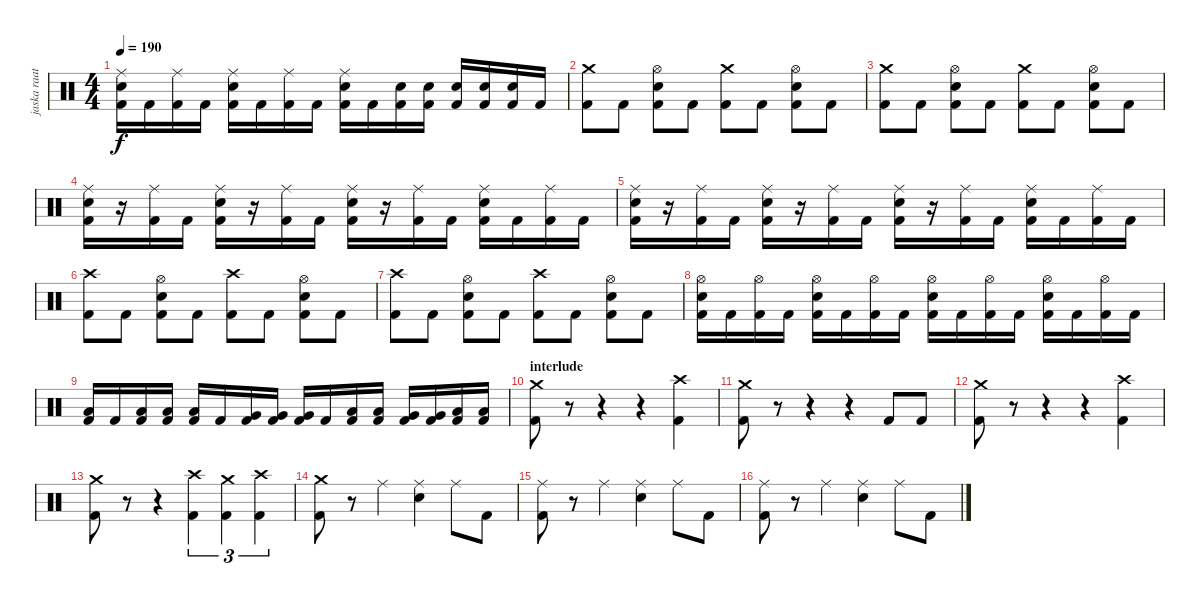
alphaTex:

\track ("jaska raatikainen" "jaska raat") {instrument percussion}
\staff {score}
\articulation defaults
\ts (4 4)
\tempo 190
\clef neutral
\ks c
("Ride (middle)" "Snare (hit) 2" "Kick (hit) 2").16{dy f} "Kick (hit) 2".16 ("Ride (middle)" "Kick (hit) 2").16 "Kick (hit) 2".16 ("Ride (middle)" "Snare (hit) 2" "Kick (hit) 2").16 "Kick (hit) 2".16 ("Ride (middle)" "Kick (hit) 2").16 "Kick (hit) 2".16 ("Ride (middle)" "Snare (hit) 2" "Kick (hit) 2").16 "Kick (hit) 2".16 ("Snare (hit) 2" "Kick (hit) 2").16 ("Snare (hit) 2" "Kick (hit) 2").16 ("Snare (hit) 2" "Kick (hit) 2").16 ("Snare (hit) 2" "Kick (hit) 2").16 ("Snare (hit) 2" "Kick (hit) 2").16 "Kick (hit) 2".16 |
("Crash medium (hit)" "Kick (hit) 2").8 "Kick (hit) 2".8 ("Hi-Hat (open)" "Snare (hit) 2" "Kick (hit) 2").8 "Kick (hit) 2".8 ("Crash medium (hit)" "Kick (hit) 2").8 "Kick (hit) 2".8 ("Hi-Hat (open)" "Snare (hit) 2" "Kick (hit) 2").8 "Kick (hit) 2".8 |
("Crash medium (hit)" "Kick (hit) 2").8 "Kick (hit) 2".8 ("Hi-Hat (open)" "Snare (hit) 2" "Kick (hit) 2").8 "Kick (hit) 2".8 ("Crash medium (hit)" "Kick (hit) 2").8 "Kick (hit) 2".8 ("Hi-Hat (open)" "Snare (hit) 2" "Kick (hit) 2").8 "Kick (hit) 2".8 |
("Ride (middle)" "Snare (hit) 2" "Kick (hit) 2").16 r.16 ("Ride (middle)" "Kick (hit) 2").16 "Kick (hit) 2".16 ("Ride (middle)" "Snare (hit) 2" "Kick (hit) 2").16 r.16 ("Ride (middle)" "Kick (hit) 2").16 "Kick (hit) 2".16 ("Ride (middle)" "Snare (hit) 2" "Kick (hit) 2").16 r.16 ("Ride (middle)" "Kick (hit) 2").16 "Kick (hit) 2".16 ("Ride (middle)" "Snare (hit) 2" "Kick (hit) 2").16 "Kick (hit) 2".16 ("Ride (middle)" "Kick (hit) 2").16 "Kick (hit) 2".16 |
("Ride (middle)" "Snare (hit) 2" "Kick (hit) 2").16 r.16 ("Ride (middle)" "Kick (hit) 2").16 "Kick (hit) 2".16 ("Ride (middle)" "Snare (hit) 2" "Kick (hit) 2").16 r.16 ("Ride (middle)" "Kick (hit) 2").16 "Kick (hit) 2".16 ("Ride (middle)" "Snare (hit) 2" "Kick (hit) 2").16 r.16 ("Ride (middle)" "Kick (hit) 2").16 "Kick (hit) 2".16 ("Ride (middle)" "Snare (hit) 2" "Kick (hit) 2").16 "Kick (hit) 2".16 ("Ride (middle)" "Kick (hit) 2").16 "Kick (hit) 2".16 |
("Crash high (hit)" "Kick (hit) 2").8 "Kick (hit) 2".8 ("Hi-Hat (open)" "Snare (hit) 2" "Kick (hit) 2").8 "Kick (hit) 2".8 ("Crash high (hit)" "Kick (hit) 2").8 "Kick (hit) 2".8 ("Hi-Hat (open)" "Snare (hit) 2" "Kick (hit) 2").8 "Kick (hit) 2".8 |
("Crash high (hit)" "Kick (hit) 2").8 "Kick (hit) 2".8 ("Hi-Hat (open)" "Snare (hit) 2" "Kick (hit) 2").8 "Kick (hit) 2".8 ("Crash high (hit)" "Kick (hit) 2").8 "Kick (hit) 2".8 ("Hi-Hat (open)" "Snare (hit) 2" "Kick (hit) 2").8 "Kick (hit) 2".8 |
("Hi-Hat (open)" "Snare (hit) 2" "Kick (hit) 2").16 "Kick (hit) 2".16 ("Hi-Hat (open)" "Kick (hit) 2").16 "Kick (hit) 2".16 ("Hi-Hat (open)" "Snare (hit) 2" "Kick (hit) 2").16 "Kick (hit) 2".16 ("Hi-Hat (open)" "Kick (hit) 2").16 "Kick (hit) 2".16 ("Hi-Hat (open)" "Snare (hit) 2" "Kick (hit) 2").16 "Kick (hit) 2".16 ("Hi-Hat (open)" "Kick (hit) 2").16 "Kick (hit) 2".16 ("Hi-Hat (open)" "Snare (hit) 2" "Kick (hit) 2").16 "Kick (hit) 2".16 ("Hi-Hat (open)" "Kick (hit) 2").16 "Kick (hit) 2".16 |
("Low Tom (hit)" "Kick (hit) 2").16 "Kick (hit) 2".16 ("Low Tom (hit)" "Kick (hit) 2").16 ("Low Tom (hit)" "Kick (hit) 2").16 ("Low Tom (hit)" "Kick (hit) 2").16 "Kick (hit) 2".16 ("Very Low Tom (hit)" "Kick (hit) 2").16 ("Very Low Tom (hit)" "Kick (hit) 2").16 ("Very Low Tom (hit)" "Kick (hit) 2").16 "Kick (hit) 2".16 ("Low Tom (hit)" "Kick (hit) 2").16 ("Low Tom (hit)" "Kick (hit) 2").16 ("Very Low Tom (hit)" "Kick (hit) 2").16 ("Very Low Tom (hit)" "Kick (hit) 2").16 ("Low Floor Tom (hit)" "Kick (hit) 2").16 ("Low Floor Tom (hit)" "Kick (hit) 2").16 |
\section ("" "interlude")
("Crash medium (hit)" "Kick (hit) 2").8 r.8 r.4 r.4 ("Crash high (hit)" "Kick (hit) 2").4 |
("Crash medium (hit)" "Kick (hit) 2").8 r.8 r.4 r.4 "Kick (hit) 2".8 "Kick (hit) 2".8 |
("Crash medium (hit)" "Kick (hit) 2").8 r.8 r.4 r.4 ("Crash high (hit)" "Kick (hit) 2").4 |
("Crash medium (hit)" "Kick (hit) 2").8 r.8 r.4 ("Crash high (hit)" "Kick (hit) 2").4{tu (3 2)} ("Crash medium (hit)" "Kick (hit) 2").4{tu (3 2)} ("Crash high (hit)" "Kick (hit) 2").4{tu (3 2)} |
("Crash medium (hit)" "Kick (hit) 2").8 r.8 "Ride (middle)".4 ("Ride (middle)" "Snare (hit) 2").4 "Ride (middle)".8 "Kick (hit) 2".8 |
("Ride (middle)" "Kick (hit) 2").8 r.8 "Ride (middle)".4 ("Ride (middle)" "Snare (hit) 2").4 "Ride (middle)".8 "Kick (hit) 2".8 |
("Ride (middle)" "Kick (hit) 2").8 r.8 "Ride (middle)".4 ("Ride (middle)" "Snare (hit) 2").4 "Ride (middle)".8 "Kick (hit) 2".8
